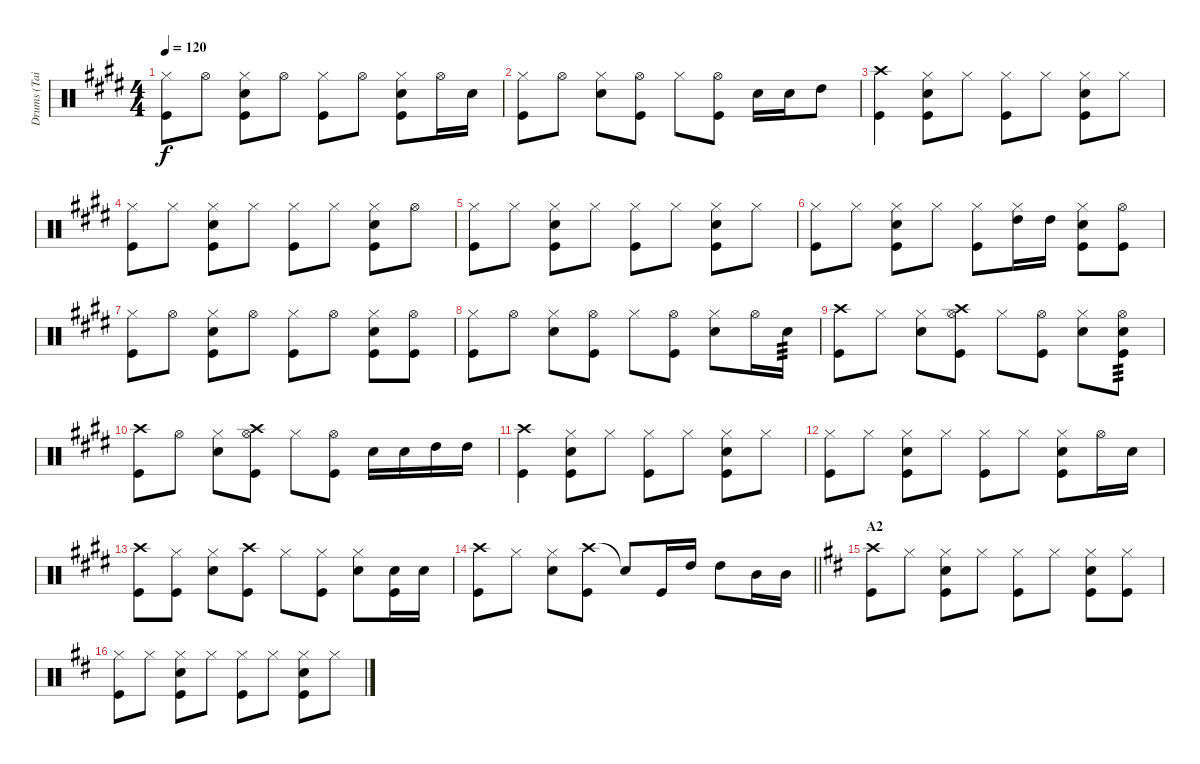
\track ("Drums (Tainaka Ritsu)" "Drums (Tai") {instrument percussion}
\staff {score}
\articulation defaults
\ts (4 4)
\tempo 120
\clef neutral
\ks e
("Hi-Hat (closed)" "Kick (hit)").8{dy f} "Hi-Hat (open)".8 ("Hi-Hat (closed)" "Snare (hit) 2" "Kick (hit)").8 "Hi-Hat (open)".8 ("Hi-Hat (closed)" "Kick (hit)").8 "Hi-Hat (open)".8 ("Hi-Hat (closed)" "Snare (hit) 2" "Kick (hit)").8 "Hi-Hat (open)".16 "Snare (hit) 2".16 |
("Hi-Hat (closed)" "Kick (hit)").8 "Hi-Hat (open)".8 ("Hi-Hat (closed)" "Snare (hit) 2").8 ("Hi-Hat (open)" "Kick (hit)").8 "Hi-Hat (closed)".8 ("Hi-Hat (open)" "Kick (hit)").8 "Snare (hit) 2".16 "Snare (hit) 2".16 "High Tom (hit)".8 |
("Crash high (hit)" "Kick (hit)").4 ("Hi-Hat (closed)" "Snare (hit) 2" "Kick (hit)").8 "Hi-Hat (closed)".8 ("Hi-Hat (closed)" "Kick (hit)").8 "Hi-Hat (closed)".8 ("Hi-Hat (closed)" "Snare (hit) 2" "Kick (hit)").8 "Hi-Hat (closed)".8 |
("Hi-Hat (closed)" "Kick (hit)").8 "Hi-Hat (closed)".8 ("Hi-Hat (closed)" "Snare (hit) 2" "Kick (hit)").8 "Hi-Hat (closed)".8 ("Hi-Hat (closed)" "Kick (hit)").8 "Hi-Hat (closed)".8 ("Hi-Hat (closed)" "Snare (hit) 2" "Kick (hit)").8 "Hi-Hat (open)".8 |
("Hi-Hat (closed)" "Kick (hit)").8 "Hi-Hat (closed)".8 ("Hi-Hat (closed)" "Snare (hit) 2" "Kick (hit)").8 "Hi-Hat (closed)".8 ("Hi-Hat (closed)" "Kick (hit)").8 "Hi-Hat (closed)".8 ("Hi-Hat (closed)" "Snare (hit) 2" "Kick (hit)").8 "Hi-Hat (closed)".8 |
("Hi-Hat (closed)" "Kick (hit)").8 "Hi-Hat (closed)".8 ("Hi-Hat (closed)" "Snare (hit) 2" "Kick (hit)").8 "Hi-Hat (closed)".8 ("Hi-Hat (closed)" "Kick (hit)").8 ("Hi-Hat (closed)" "High Tom (hit)").16 "High Tom (hit)".16 ("Hi-Hat (closed)" "Snare (hit) 2" "Kick (hit)").8 ("Hi-Hat (open)" "Kick (hit)").8 |
("Hi-Hat (closed)" "Kick (hit)").8 "Hi-Hat (open)".8 ("Hi-Hat (closed)" "Snare (hit) 2" "Kick (hit)").8 "Hi-Hat (open)".8 ("Hi-Hat (closed)" "Kick (hit)").8 "Hi-Hat (open)".8 ("Hi-Hat (closed)" "Snare (hit) 2" "Kick (hit)").8 ("Hi-Hat (open)" "Kick (hit)").8 |
("Hi-Hat (closed)" "Kick (hit)").8 "Hi-Hat (open)".8 ("Hi-Hat (closed)" "Snare (hit) 2").8 ("Hi-Hat (open)" "Kick (hit)").8 "Hi-Hat (closed)".8 ("Hi-Hat (open)" "Kick (hit)").8 ("Hi-Hat (closed)" "Snare (hit) 2").8 "Hi-Hat (open)".16 "Snare (hit) 2".16{tp 3} |
("Crash high (hit)" "Kick (hit)").8 "Hi-Hat (closed)".8 ("Hi-Hat (closed)" "Snare (hit) 2").8 ("Hi-Hat (open)" "Crash high (hit)" "Kick (hit)").8 "Hi-Hat (closed)".8 ("Hi-Hat (open)" "Kick (hit)").8 ("Hi-Hat (closed)" "Snare (hit) 2").8 ("Hi-Hat (open)" "Snare (hit) 2" "Kick (hit)").8{tp 3} |
("Crash high (hit)" "Kick (hit)").8 "Hi-Hat (open)".8 ("Hi-Hat (closed)" "Snare (hit) 2").8 ("Hi-Hat (open)" "Crash high (hit)" "Kick (hit)").8 "Hi-Hat (closed)".8 ("Hi-Hat (open)" "Kick (hit)").8 "Snare (hit) 2".16 "Snare (hit) 2".16 "High Tom (hit)".16 "High Tom (hit)".16 |
("Crash high (hit)" "Kick (hit)").4 ("Hi-Hat (closed)" "Snare (hit) 2" "Kick (hit)").8 "Hi-Hat (closed)".8 ("Hi-Hat (closed)" "Kick (hit)").8 "Hi-Hat (closed)".8 ("Hi-Hat (closed)" "Snare (hit) 2" "Kick (hit)").8 "Hi-Hat (closed)".8 |
("Hi-Hat (closed)" "Kick (hit)").8 "Hi-Hat (closed)".8 ("Hi-Hat (closed)" "Snare (hit) 2" "Kick (hit)").8 "Hi-Hat (closed)".8 ("Hi-Hat (closed)" "Kick (hit)").8 "Hi-Hat (closed)".8 ("Hi-Hat (closed)" "Snare (hit) 2" "Kick (hit)").8 "Hi-Hat (open)".16 "Snare (hit) 2".16 |
("Crash high (hit)" "Kick (hit)").8 ("Hi-Hat (closed)" "Kick (hit)").8 ("Hi-Hat (closed)" "Snare (hit) 2").8 ("Crash high (hit)" "Kick (hit)").8 "Hi-Hat (closed)".8 ("Hi-Hat (closed)" "Kick (hit)").8 ("Hi-Hat (closed)" "Snare (hit) 2").8 ("Snare (hit) 2" "Kick (hit)").16 "Snare (hit) 2".16 |
\barLineRight lightlight
("Crash high (hit)" "Kick (hit)").8 "Hi-Hat (closed)".8 ("Hi-Hat (closed)" "Snare (hit) 2").8 ("Crash high (hit)" "Kick (hit)").8 "Snare (hit)"{t}.8 "Kick (hit)".16 "High Tom (hit)".16 "High Tom (hit)".8 "Mid Tom (hit)".16 "Mid Tom (hit)".16 |
\section ("" "A2")
\ks d
("Crash high (hit)" "Kick (hit)").8 "Hi-Hat (closed)".8 ("Hi-Hat (closed)" "Snare (hit) 2" "Kick (hit)").8 "Hi-Hat (closed)".8 ("Hi-Hat (closed)" "Kick (hit)").8 "Hi-Hat (closed)".8 ("Hi-Hat (closed)" "Snare (hit) 2" "Kick (hit)").8 ("Hi-Hat (closed)" "Kick (hit)").8 |
("Hi-Hat (closed)" "Kick (hit)").8 "Hi-Hat (closed)".8 ("Hi-Hat (closed)" "Snare (hit) 2" "Kick (hit)").8 "Hi-Hat (closed)".8 ("Hi-Hat (closed)" "Kick (hit)").8 "Hi-Hat (closed)".8 ("Hi-Hat (closed)" "Snare (hit) 2" "Kick (hit)").8 "Hi-Hat (closed)".8
